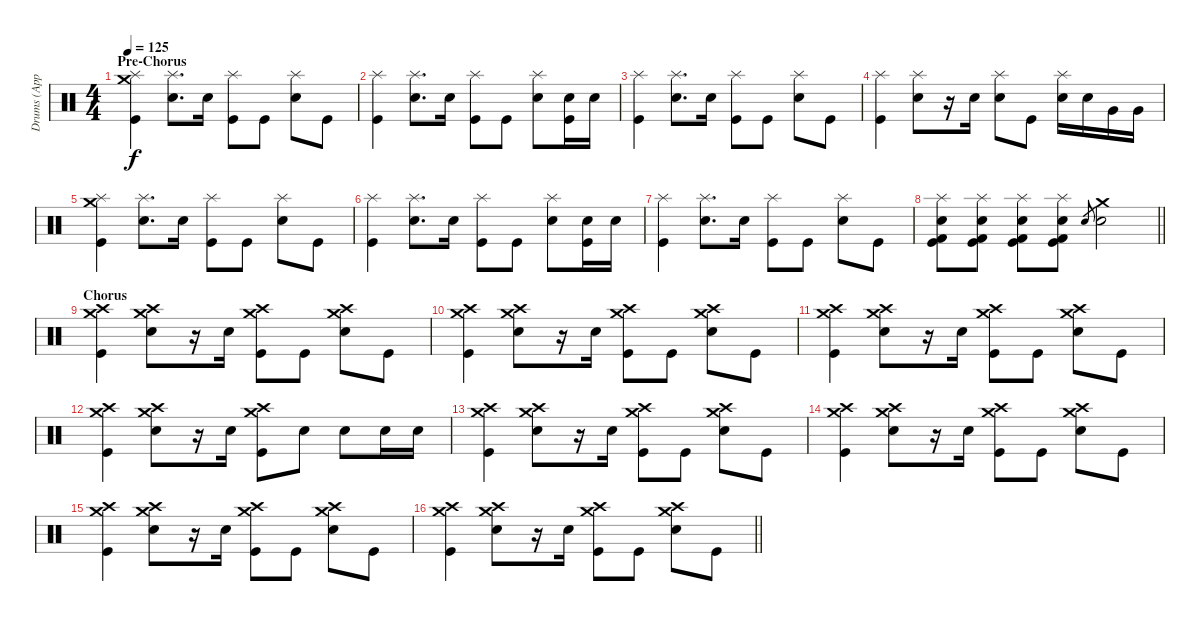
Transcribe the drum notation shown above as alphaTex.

\track ("Drums (Approx.)" "Drums (App") {instrument percussion}
\staff {score}
\articulation defaults
\ts (4 4)
\section ("" "Pre-Chorus")
\tempo 125
\clef neutral
\ks c
("Crash medium (hit)" "Splash (hit)" "Kick (hit)").4{dy f} ("Splash (hit)" "Electric Snare (hit)").8{d} "Electric Snare (hit)".16 ("Splash (hit)" "Kick (hit)").8 "Kick (hit)".8 ("Splash (hit)" "Electric Snare (hit)").8 "Kick (hit)".8 |
("Splash (hit)" "Kick (hit)").4 ("Splash (hit)" "Electric Snare (hit)").8{d} "Electric Snare (hit)".16 ("Splash (hit)" "Kick (hit)").8 "Kick (hit)".8 ("Splash (hit)" "Electric Snare (hit)").8 ("Electric Snare (hit)" "Kick (hit)").16 "Electric Snare (hit)".16 |
("Splash (hit)" "Kick (hit)").4 ("Splash (hit)" "Electric Snare (hit)").8{d} "Electric Snare (hit)".16 ("Splash (hit)" "Kick (hit)").8 "Kick (hit)".8 ("Splash (hit)" "Electric Snare (hit)").8 "Kick (hit)".8 |
("Splash (hit)" "Kick (hit)").4 ("Splash (hit)" "Electric Snare (hit)").8 r.16 "Electric Snare (hit)".16 ("Splash (hit)" "Electric Snare (hit)").8 "Kick (hit)".8 ("Splash (hit)" "Electric Snare (hit)").16 "Electric Snare (hit)".16 "Very Low Tom (hit)".16 "Very Low Tom (hit)".16 |
("Crash medium (hit)" "Splash (hit)" "Kick (hit)").4 ("Splash (hit)" "Electric Snare (hit)").8{d} "Electric Snare (hit)".16 ("Splash (hit)" "Kick (hit)").8 "Kick (hit)".8 ("Splash (hit)" "Electric Snare (hit)").8 "Kick (hit)".8 |
("Splash (hit)" "Kick (hit)").4 ("Splash (hit)" "Electric Snare (hit)").8{d} "Electric Snare (hit)".16 ("Splash (hit)" "Kick (hit)").8 "Kick (hit)".8 ("Splash (hit)" "Electric Snare (hit)").8 ("Electric Snare (hit)" "Kick (hit)").16 "Electric Snare (hit)".16 |
("Splash (hit)" "Kick (hit)").4 ("Splash (hit)" "Electric Snare (hit)").8{d} "Electric Snare (hit)".16 ("Splash (hit)" "Kick (hit)").8 "Kick (hit)".8 ("Splash (hit)" "Electric Snare (hit)").8 "Kick (hit)".8 |
\barLineRight lightlight
("Splash (hit)" "Electric Snare (hit)" "Kick (hit) 2" "Kick (hit)").8 ("Splash (hit)" "Electric Snare (hit)" "Kick (hit) 2" "Kick (hit)").8 ("Splash (hit)" "Electric Snare (hit)" "Kick (hit) 2" "Kick (hit)").8 ("Splash (hit)" "Electric Snare (hit)" "Kick (hit) 2" "Kick (hit)").8 "Electric Snare (hit)".8{gr} ("Crash medium (hit)" "Electric Snare (hit)").2 |
\section ("" "Chorus")
("Crash medium (hit)" "Crash high (hit)" "Kick (hit)").4 ("Crash medium (hit)" "Crash high (hit)" "Electric Snare (hit)").8 r.16 "Electric Snare (hit)".16 ("Crash medium (hit)" "Crash high (hit)" "Kick (hit)").8 "Kick (hit)".8 ("Crash medium (hit)" "Crash high (hit)" "Electric Snare (hit)").8 "Kick (hit)".8 |
("Crash medium (hit)" "Crash high (hit)" "Kick (hit)").4 ("Crash medium (hit)" "Crash high (hit)" "Electric Snare (hit)").8 r.16 "Electric Snare (hit)".16 ("Crash medium (hit)" "Crash high (hit)" "Kick (hit)").8 "Kick (hit)".8 ("Crash medium (hit)" "Crash high (hit)" "Electric Snare (hit)").8 "Kick (hit)".8 |
("Crash medium (hit)" "Crash high (hit)" "Kick (hit)").4 ("Crash medium (hit)" "Crash high (hit)" "Electric Snare (hit)").8 r.16 "Electric Snare (hit)".16 ("Crash medium (hit)" "Crash high (hit)" "Kick (hit)").8 "Kick (hit)".8 ("Crash medium (hit)" "Crash high (hit)" "Electric Snare (hit)").8 "Kick (hit)".8 |
("Crash medium (hit)" "Crash high (hit)" "Kick (hit)").4 ("Crash medium (hit)" "Crash high (hit)" "Electric Snare (hit)").8 r.16 "Electric Snare (hit)".16 ("Crash medium (hit)" "Crash high (hit)" "Kick (hit)").8 "Electric Snare (hit)".8 "Electric Snare (hit)".8 "Electric Snare (hit)".16 "Electric Snare (hit)".16 |
("Crash medium (hit)" "Crash high (hit)" "Kick (hit)").4 ("Crash medium (hit)" "Crash high (hit)" "Electric Snare (hit)").8 r.16 "Electric Snare (hit)".16 ("Crash medium (hit)" "Crash high (hit)" "Kick (hit)").8 "Kick (hit)".8 ("Crash medium (hit)" "Crash high (hit)" "Electric Snare (hit)").8 "Kick (hit)".8 |
("Crash medium (hit)" "Crash high (hit)" "Kick (hit)").4 ("Crash medium (hit)" "Crash high (hit)" "Electric Snare (hit)").8 r.16 "Electric Snare (hit)".16 ("Crash medium (hit)" "Crash high (hit)" "Kick (hit)").8 "Kick (hit)".8 ("Crash medium (hit)" "Crash high (hit)" "Electric Snare (hit)").8 "Kick (hit)".8 |
("Crash medium (hit)" "Crash high (hit)" "Kick (hit)").4 ("Crash medium (hit)" "Crash high (hit)" "Electric Snare (hit)").8 r.16 "Electric Snare (hit)".16 ("Crash medium (hit)" "Crash high (hit)" "Kick (hit)").8 "Kick (hit)".8 ("Crash medium (hit)" "Crash high (hit)" "Electric Snare (hit)").8 "Kick (hit)".8 |
\barLineRight lightlight
("Crash medium (hit)" "Crash high (hit)" "Kick (hit)").4 ("Crash medium (hit)" "Crash high (hit)" "Electric Snare (hit)").8 r.16 "Electric Snare (hit)".16 ("Crash medium (hit)" "Crash high (hit)" "Kick (hit)").8 "Kick (hit)".8 ("Crash medium (hit)" "Crash high (hit)" "Electric Snare (hit)").8 "Kick (hit)".8
